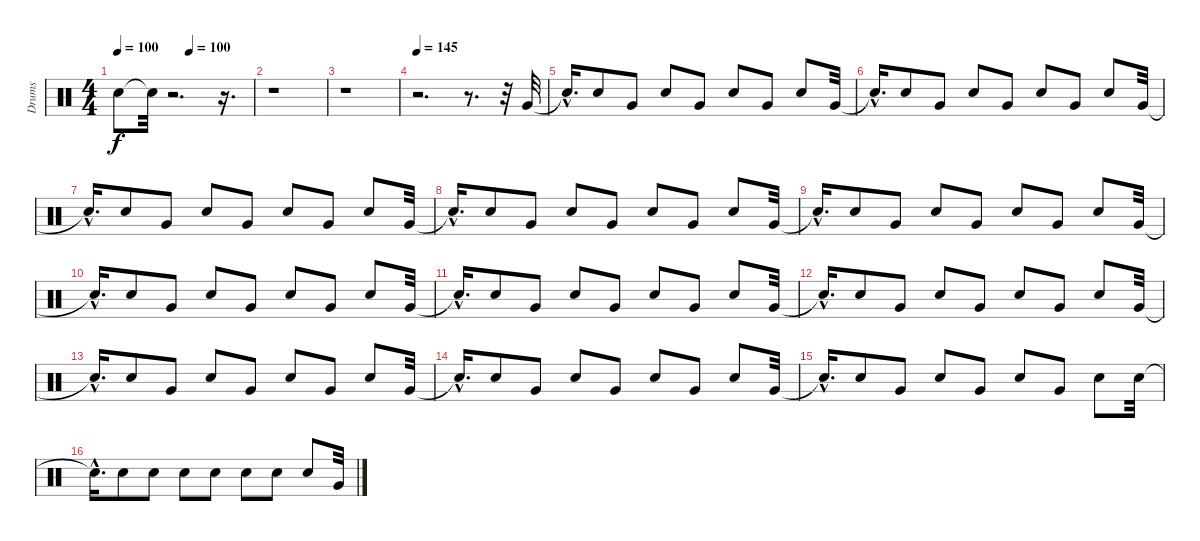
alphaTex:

\track ("Drums" "Drums") {instrument percussion}
\staff {score}
\articulation defaults
\ts (4 4)
\tempo 100
\tempo (100 0.53125)
\clef neutral
\ks c "Snare (hit)"{t}.8{dy f} "Snare (hit)"{t}.32
r.2{d} r.16{d} |
r.1 |
r.1 |
\tempo 145
r.2{d} r.8{d} r.32 "Very Low Tom (hit)".32 |
"Snare (hit)"{hac t}.16{d} "Snare (hit) 2".8 "Very Low Tom (hit)".8 "Snare (hit) 2".8 "Very Low Tom (hit)".8 "Snare (hit) 2".8 "Very Low Tom (hit)".8 "Snare (hit) 2".8 "Very Low Tom (hit)".32 |
"Snare (hit)"{hac t}.16{d} "Snare (hit) 2".8 "Very Low Tom (hit)".8 "Snare (hit) 2".8 "Very Low Tom (hit)".8 "Snare (hit) 2".8 "Very Low Tom (hit)".8 "Snare (hit) 2".8 "Very Low Tom (hit)".32 |
"Snare (hit)"{hac t}.16{d} "Snare (hit) 2".8 "Very Low Tom (hit)".8 "Snare (hit) 2".8 "Very Low Tom (hit)".8 "Snare (hit) 2".8 "Very Low Tom (hit)".8 "Snare (hit) 2".8 "Very Low Tom (hit)".32 |
"Snare (hit)"{hac t}.16{d} "Snare (hit) 2".8 "Very Low Tom (hit)".8 "Snare (hit) 2".8 "Very Low Tom (hit)".8 "Snare (hit) 2".8 "Very Low Tom (hit)".8 "Snare (hit) 2".8 "Very Low Tom (hit)".32 |
"Snare (hit)"{hac t}.16{d} "Snare (hit) 2".8 "Very Low Tom (hit)".8 "Snare (hit) 2".8 "Very Low Tom (hit)".8 "Snare (hit) 2".8 "Very Low Tom (hit)".8 "Snare (hit) 2".8 "Very Low Tom (hit)".32 |
"Snare (hit)"{hac t}.16{d} "Snare (hit) 2".8 "Very Low Tom (hit)".8 "Snare (hit) 2".8 "Very Low Tom (hit)".8 "Snare (hit) 2".8 "Very Low Tom (hit)".8 "Snare (hit) 2".8 "Very Low Tom (hit)".32 |
"Snare (hit)"{hac t}.16{d} "Snare (hit) 2".8 "Very Low Tom (hit)".8 "Snare (hit) 2".8 "Very Low Tom (hit)".8 "Snare (hit) 2".8 "Very Low Tom (hit)".8 "Snare (hit) 2".8 "Very Low Tom (hit)".32 |
"Snare (hit)"{hac t}.16{d} "Snare (hit) 2".8 "Very Low Tom (hit)".8 "Snare (hit) 2".8 "Very Low Tom (hit)".8 "Snare (hit) 2".8 "Very Low Tom (hit)".8 "Snare (hit) 2".8 "Very Low Tom (hit)".32 |
"Snare (hit)"{hac t}.16{d} "Snare (hit) 2".8 "Very Low Tom (hit)".8 "Snare (hit) 2".8 "Very Low Tom (hit)".8 "Snare (hit) 2".8 "Very Low Tom (hit)".8 "Snare (hit) 2".8 "Very Low Tom (hit)".32 |
"Snare (hit)"{hac t}.16{d} "Snare (hit) 2".8 "Very Low Tom (hit)".8 "Snare (hit) 2".8 "Very Low Tom (hit)".8 "Snare (hit) 2".8 "Very Low Tom (hit)".8 "Snare (hit) 2".8 "Very Low Tom (hit)".32 |
"Snare (hit)"{hac t}.16{d} "Snare (hit) 2".8 "Very Low Tom (hit)".8 "Snare (hit) 2".8 "Very Low Tom (hit)".8 "Snare (hit) 2".8 "Very Low Tom (hit)".8 "Snare (hit) 2".8 "Snare (hit) 2".32 |
"Snare (hit)"{hac t}.16{d} "Snare (hit) 2".8 "Snare (hit) 2".8 "Snare (hit) 2".8 "Snare (hit) 2".8 "Snare (hit) 2".8 "Snare (hit) 2".8 "Snare (hit) 2".8 "Very Low Tom (hit)".32
